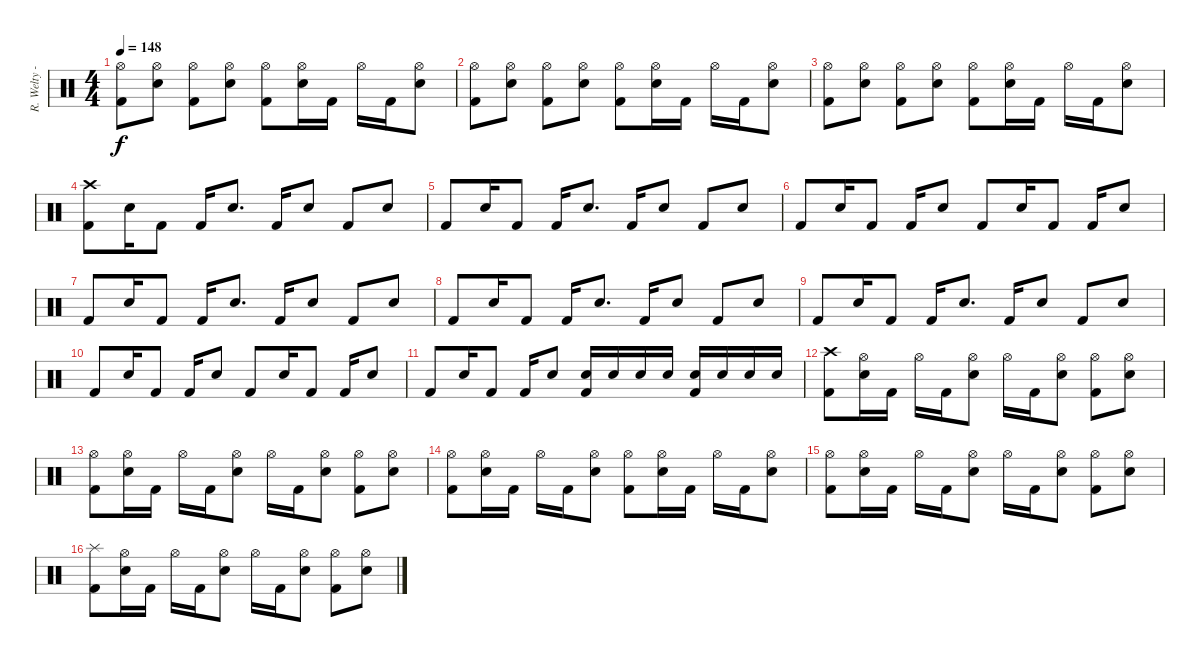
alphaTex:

\track ("R. Welty - Drums" "R. Welty -") {instrument percussion}
\staff {score}
\articulation defaults
\ts (4 4)
\tempo 148
\clef neutral
\ks c
("Hi-Hat (open)" "Kick (hit) 2").8{dy f} ("Hi-Hat (open)" "Snare (hit) 2").8 ("Hi-Hat (open)" "Kick (hit) 2").8 ("Hi-Hat (open)" "Snare (hit) 2").8 ("Hi-Hat (open)" "Kick (hit) 2").8 ("Hi-Hat (open)" "Snare (hit) 2").16 "Kick (hit) 2".16 "Hi-Hat (open)".16 "Kick (hit) 2".16 ("Hi-Hat (open)" "Snare (hit) 2").8 |
("Hi-Hat (open)" "Kick (hit) 2").8 ("Hi-Hat (open)" "Snare (hit) 2").8 ("Hi-Hat (open)" "Kick (hit) 2").8 ("Hi-Hat (open)" "Snare (hit) 2").8 ("Hi-Hat (open)" "Kick (hit) 2").8 ("Hi-Hat (open)" "Snare (hit) 2").16 "Kick (hit) 2".16 "Hi-Hat (open)".16 "Kick (hit) 2".16 ("Hi-Hat (open)" "Snare (hit) 2").8 |
("Hi-Hat (open)" "Kick (hit) 2").8 ("Hi-Hat (open)" "Snare (hit) 2").8 ("Hi-Hat (open)" "Kick (hit) 2").8 ("Hi-Hat (open)" "Snare (hit) 2").8 ("Hi-Hat (open)" "Kick (hit) 2").8 ("Hi-Hat (open)" "Snare (hit) 2").16 "Kick (hit) 2".16 "Hi-Hat (open)".16 "Kick (hit) 2".16 ("Hi-Hat (open)" "Snare (hit) 2").8 |
("Crash high (hit)" "Kick (hit) 2").8 "Snare (hit) 2".16 "Kick (hit) 2".8 "Kick (hit) 2".16 "Snare (hit) 2".8{d} "Kick (hit) 2".16 "Snare (hit) 2".8 "Kick (hit) 2".8 "Snare (hit) 2".8 |
"Kick (hit) 2".8 "Snare (hit) 2".16 "Kick (hit) 2".8 "Kick (hit) 2".16 "Snare (hit) 2".8{d} "Kick (hit) 2".16 "Snare (hit) 2".8 "Kick (hit) 2".8 "Snare (hit) 2".8 |
"Kick (hit) 2".8 "Snare (hit) 2".16 "Kick (hit) 2".8 "Kick (hit) 2".16 "Snare (hit) 2".8 "Kick (hit) 2".8 "Snare (hit) 2".16 "Kick (hit) 2".8 "Kick (hit) 2".16 "Snare (hit) 2".8 |
"Kick (hit) 2".8 "Snare (hit) 2".16 "Kick (hit) 2".8 "Kick (hit) 2".16 "Snare (hit) 2".8{d} "Kick (hit) 2".16 "Snare (hit) 2".8 "Kick (hit) 2".8 "Snare (hit) 2".8 |
"Kick (hit) 2".8 "Snare (hit) 2".16 "Kick (hit) 2".8 "Kick (hit) 2".16 "Snare (hit) 2".8{d} "Kick (hit) 2".16 "Snare (hit) 2".8 "Kick (hit) 2".8 "Snare (hit) 2".8 |
"Kick (hit) 2".8 "Snare (hit) 2".16 "Kick (hit) 2".8 "Kick (hit) 2".16 "Snare (hit) 2".8{d} "Kick (hit) 2".16 "Snare (hit) 2".8 "Kick (hit) 2".8 "Snare (hit) 2".8 |
"Kick (hit) 2".8 "Snare (hit) 2".16 "Kick (hit) 2".8 "Kick (hit) 2".16 "Snare (hit) 2".8 "Kick (hit) 2".8 "Snare (hit) 2".16 "Kick (hit) 2".8 "Kick (hit) 2".16 "Snare (hit) 2".8 |
"Kick (hit) 2".8 "Snare (hit) 2".16 "Kick (hit) 2".8 "Kick (hit) 2".16 "Snare (hit) 2".8 ("Snare (hit) 2" "Kick (hit) 2").16 "Snare (hit) 2".16 "Snare (hit) 2".16 "Snare (hit) 2".16 ("Snare (hit) 2" "Kick (hit) 2").16 "Snare (hit) 2".16 "Snare (hit) 2".16 "Snare (hit) 2".16 |
("Crash high (hit)" "Kick (hit) 2").8 ("Hi-Hat (open)" "Snare (hit) 2").16 "Kick (hit) 2".16 "Hi-Hat (open)".16 "Kick (hit) 2".16 ("Hi-Hat (open)" "Snare (hit) 2").8 "Hi-Hat (open)".16 "Kick (hit) 2".16 ("Hi-Hat (open)" "Snare (hit) 2").8 ("Hi-Hat (open)" "Kick (hit) 2").8 ("Hi-Hat (open)" "Snare (hit) 2").8 |
("Hi-Hat (open)" "Kick (hit) 2").8 ("Hi-Hat (open)" "Snare (hit) 2").16 "Kick (hit) 2".16 "Hi-Hat (open)".16 "Kick (hit) 2".16 ("Hi-Hat (open)" "Snare (hit) 2").8 "Hi-Hat (open)".16 "Kick (hit) 2".16 ("Hi-Hat (open)" "Snare (hit) 2").8 ("Hi-Hat (open)" "Kick (hit) 2").8 ("Hi-Hat (open)" "Snare (hit) 2").8 |
("Hi-Hat (open)" "Kick (hit) 2").8 ("Hi-Hat (open)" "Snare (hit) 2").16 "Kick (hit) 2".16 "Hi-Hat (open)".16 "Kick (hit) 2".16 ("Hi-Hat (open)" "Snare (hit) 2").8 ("Hi-Hat (open)" "Kick (hit) 2").8 ("Hi-Hat (open)" "Snare (hit) 2").16 "Kick (hit) 2".16 "Hi-Hat (open)".16 "Kick (hit) 2".16 ("Hi-Hat (open)" "Snare (hit) 2").8 |
("Hi-Hat (open)" "Kick (hit) 2").8 ("Hi-Hat (open)" "Snare (hit) 2").16 "Kick (hit) 2".16 "Hi-Hat (open)".16 "Kick (hit) 2".16 ("Hi-Hat (open)" "Snare (hit) 2").8 "Hi-Hat (open)".16 "Kick (hit) 2".16 ("Hi-Hat (open)" "Snare (hit) 2").8 ("Hi-Hat (open)" "Kick (hit) 2").8 ("Hi-Hat (open)" "Snare (hit) 2").8 |
("Splash (hit)" "Kick (hit) 2").8 ("Hi-Hat (open)" "Snare (hit) 2").16 "Kick (hit) 2".16 "Hi-Hat (open)".16 "Kick (hit) 2".16 ("Hi-Hat (open)" "Snare (hit) 2").8 "Hi-Hat (open)".16 "Kick (hit) 2".16 ("Hi-Hat (open)" "Snare (hit) 2").8 ("Hi-Hat (open)" "Kick (hit) 2").8 ("Hi-Hat (open)" "Snare (hit) 2").8
